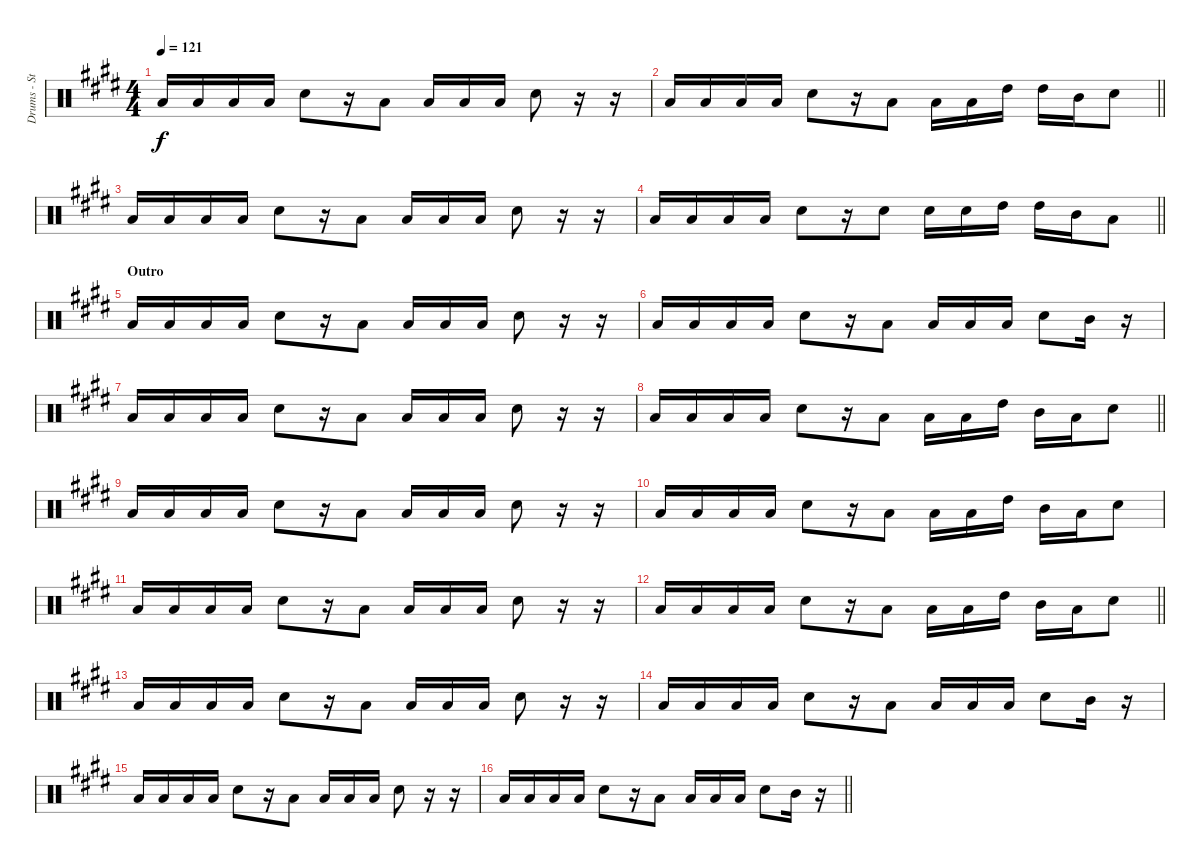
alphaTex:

\track ("Drums - Stephen Morris" "Drums - St") {instrument percussion}
\staff {score}
\articulation defaults
\ts (4 4)
\tempo 121
\clef neutral
\ks e "Low Tom (hit)".16{dy f} "Low Tom (hit)".16 "Low Tom (hit)".16 "Low Tom (hit)".16 "Electric Snare (hit)".8
r.16 "Low Tom (hit)".8 "Low Tom (hit)".16 "Low Tom (hit)".16 "Low Tom (hit)".16 "Electric Snare (hit)".8 r.16 r.16 |
\barLineRight lightlight
\ks c#minor "Low Tom (hit)".16 "Low Tom (hit)".16 "Low Tom (hit)".16 "Low Tom (hit)".16 "Electric Snare (hit)".8
r.16 "Low Tom (hit)".8 "Low Tom (hit)".16 "Low Tom (hit)".16 "High Tom (hit)".16 "High Tom (hit)".16 "Mid Tom (hit)".16 "Electric Snare (hit)".8 |
\ks e "Low Tom (hit)".16 "Low Tom (hit)".16 "Low Tom (hit)".16 "Low Tom (hit)".16 "Electric Snare (hit)".8
r.16 "Low Tom (hit)".8 "Low Tom (hit)".16 "Low Tom (hit)".16 "Low Tom (hit)".16 "Electric Snare (hit)".8 r.16 r.16 |
\barLineRight lightlight
\ks c#minor "Low Tom (hit)".16 "Low Tom (hit)".16 "Low Tom (hit)".16 "Low Tom (hit)".16 "Electric Snare (hit)".8
r.16 "Electric Snare (hit)".8 "Electric Snare (hit)".16 "Electric Snare (hit)".16 "High Tom (hit)".16 "High Tom (hit)".16 "Mid Tom (hit)".16 "Low Tom (hit)".8 |
\section ("" "Outro")
"Low Tom (hit)".16 "Low Tom (hit)".16 "Low Tom (hit)".16 "Low Tom (hit)".16 "Electric Snare (hit)".8 r.16 "Low Tom (hit)".8 "Low Tom (hit)".16 "Low Tom (hit)".16 "Low Tom (hit)".16 "Electric Snare (hit)".8 r.16 r.16 |
\ks e "Low Tom (hit)".16 "Low Tom (hit)".16 "Low Tom (hit)".16 "Low Tom (hit)".16 "Electric Snare (hit)".8
r.16 "Low Tom (hit)".8 "Low Tom (hit)".16 "Low Tom (hit)".16 "Low Tom (hit)".16 "Electric Snare (hit)".8 "Mid Tom (hit)".16 r.16 |
\ks c#minor "Low Tom (hit)".16 "Low Tom (hit)".16 "Low Tom (hit)".16 "Low Tom (hit)".16 "Electric Snare (hit)".8
r.16 "Low Tom (hit)".8 "Low Tom (hit)".16 "Low Tom (hit)".16 "Low Tom (hit)".16 "Electric Snare (hit)".8 r.16 r.16 |
\barLineRight lightlight "Low Tom (hit)".16 "Low Tom (hit)".16 "Low Tom (hit)".16 "Low Tom (hit)".16 "Electric Snare (hit)".8
r.16 "Low Tom (hit)".8 "Low Tom (hit)".16 "Low Tom (hit)".16 "High Tom (hit)".16 "Mid Tom (hit)".16 "Low Tom (hit)".16 "Electric Snare (hit)".8 |
"Low Tom (hit)".16 "Low Tom (hit)".16 "Low Tom (hit)".16 "Low Tom (hit)".16 "Electric Snare (hit)".8 r.16 "Low Tom (hit)".8 "Low Tom (hit)".16 "Low Tom (hit)".16 "Low Tom (hit)".16 "Electric Snare (hit)".8 r.16 r.16 |
\ks e "Low Tom (hit)".16 "Low Tom (hit)".16 "Low Tom (hit)".16 "Low Tom (hit)".16 "Electric Snare (hit)".8
r.16 "Low Tom (hit)".8 "Low Tom (hit)".16 "Low Tom (hit)".16 "High Tom (hit)".16 "Mid Tom (hit)".16 "Low Tom (hit)".16 "Electric Snare (hit)".8 |
\ks c#minor "Low Tom (hit)".16 "Low Tom (hit)".16 "Low Tom (hit)".16 "Low Tom (hit)".16 "Electric Snare (hit)".8
r.16 "Low Tom (hit)".8 "Low Tom (hit)".16 "Low Tom (hit)".16 "Low Tom (hit)".16 "Electric Snare (hit)".8 r.16 r.16 |
\barLineRight lightlight "Low Tom (hit)".16 "Low Tom (hit)".16 "Low Tom (hit)".16 "Low Tom (hit)".16 "Electric Snare (hit)".8
r.16 "Low Tom (hit)".8 "Low Tom (hit)".16 "Low Tom (hit)".16 "High Tom (hit)".16 "Mid Tom (hit)".16 "Low Tom (hit)".16 "Electric Snare (hit)".8 |
"Low Tom (hit)".16 "Low Tom (hit)".16 "Low Tom (hit)".16 "Low Tom (hit)".16 "Electric Snare (hit)".8 r.16 "Low Tom (hit)".8 "Low Tom (hit)".16 "Low Tom (hit)".16 "Low Tom (hit)".16 "Electric Snare (hit)".8 r.16 r.16 |
\ks e "Low Tom (hit)".16 "Low Tom (hit)".16 "Low Tom (hit)".16 "Low Tom (hit)".16 "Electric Snare (hit)".8
r.16 "Low Tom (hit)".8 "Low Tom (hit)".16 "Low Tom (hit)".16 "Low Tom (hit)".16 "Electric Snare (hit)".8 "Mid Tom (hit)".16 r.16 |
\ks c#minor "Low Tom (hit)".16 "Low Tom (hit)".16 "Low Tom (hit)".16 "Low Tom (hit)".16 "Electric Snare (hit)".8
r.16 "Low Tom (hit)".8 "Low Tom (hit)".16 "Low Tom (hit)".16 "Low Tom (hit)".16 "Electric Snare (hit)".8 r.16 r.16 |
\barLineRight lightlight "Low Tom (hit)".16 "Low Tom (hit)".16 "Low Tom (hit)".16 "Low Tom (hit)".16 "Electric Snare (hit)".8
r.16 "Low Tom (hit)".8 "Low Tom (hit)".16 "Low Tom (hit)".16 "Low Tom (hit)".16 "Electric Snare (hit)".8 "Mid Tom (hit)".16 r.16
